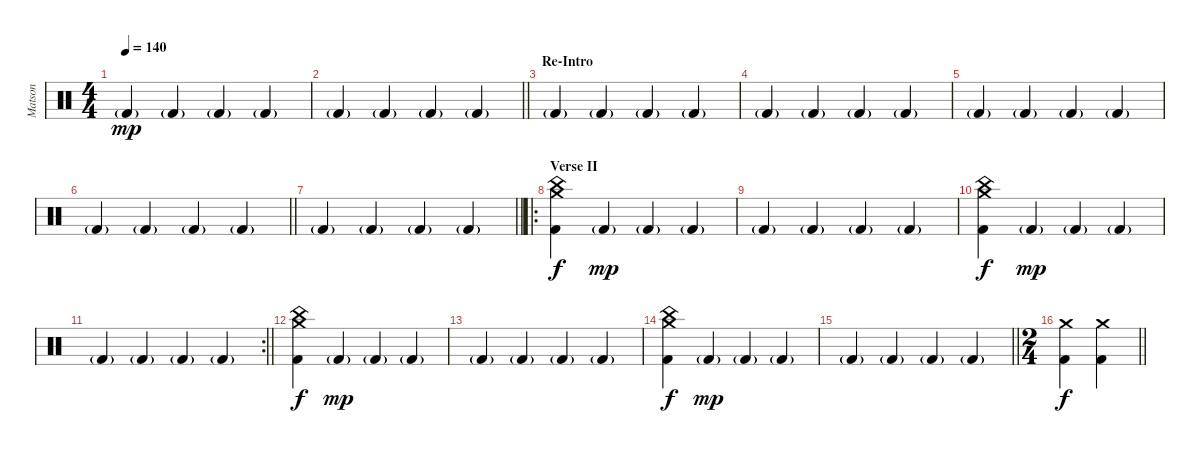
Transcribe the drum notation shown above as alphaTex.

\track ("Matson" "Matson") {instrument percussion}
\staff {score}
\articulation defaults
\ts (4 4)
\tempo 140
\clef neutral
\ks c "Kick (hit) 2"{g}.4{dy mp} "Kick (hit) 2"{g}.4 "Kick (hit) 2"{g}.4 "Kick (hit) 2"{g}.4
|
\barLineRight lightlight "Kick (hit) 2"{g}.4 "Kick (hit) 2"{g}.4 "Kick (hit) 2"{g}.4 "Kick (hit) 2"{g}.4
|
\section ("" "Re-Intro")
"Kick (hit) 2"{g}.4 "Kick (hit) 2"{g}.4 "Kick (hit) 2"{g}.4 "Kick (hit) 2"{g}.4 |
"Kick (hit) 2"{g}.4 "Kick (hit) 2"{g}.4 "Kick (hit) 2"{g}.4 "Kick (hit) 2"{g}.4 |
"Kick (hit) 2"{g}.4 "Kick (hit) 2"{g}.4 "Kick (hit) 2"{g}.4 "Kick (hit) 2"{g}.4 |
\barLineRight lightlight "Kick (hit) 2"{g}.4 "Kick (hit) 2"{g}.4 "Kick (hit) 2"{g}.4 "Kick (hit) 2"{g}.4
|
\barLineRight lightlight "Kick (hit) 2"{g}.4 "Kick (hit) 2"{g}.4 "Kick (hit) 2"{g}.4 "Kick (hit) 2"{g}.4
|
\ro
\section ("" "Verse II")
("Kick (hit) 2" "China (hit)" "Crash medium (hit)").4{dy f} "Kick (hit) 2"{g}.4{dy mp} "Kick (hit) 2"{g}.4 "Kick (hit) 2"{g}.4 |
"Kick (hit) 2"{g}.4 "Kick (hit) 2"{g}.4 "Kick (hit) 2"{g}.4 "Kick (hit) 2"{g}.4 |
("Kick (hit) 2" "China (hit)" "Crash medium (hit)").4{dy f} "Kick (hit) 2"{g}.4{dy mp} "Kick (hit) 2"{g}.4 "Kick (hit) 2"{g}.4 |
\rc 2
\barLineRight lightlight "Kick (hit) 2"{g}.4 "Kick (hit) 2"{g}.4 "Kick (hit) 2"{g}.4 "Kick (hit) 2"{g}.4
|
\section ("" "")
("Kick (hit) 2" "China (hit)" "Crash medium (hit)").4{dy f} "Kick (hit) 2"{g}.4{dy mp} "Kick (hit) 2"{g}.4 "Kick (hit) 2"{g}.4 |
"Kick (hit) 2"{g}.4 "Kick (hit) 2"{g}.4 "Kick (hit) 2"{g}.4 "Kick (hit) 2"{g}.4 |
("Kick (hit) 2" "China (hit)" "Crash medium (hit)").4{dy f} "Kick (hit) 2"{g}.4{dy mp} "Kick (hit) 2"{g}.4 "Kick (hit) 2"{g}.4 |
\barLineRight lightlight "Kick (hit) 2"{g}.4 "Kick (hit) 2"{g}.4 "Kick (hit) 2"{g}.4 "Kick (hit) 2"{g}.4
|
\ts (2 4)
\section ("" "")
\barLineRight lightlight
("Kick (hit) 2" "Crash medium (hit)").4{dy f volume 16} ("Kick (hit) 2" "Crash medium (hit)").4
